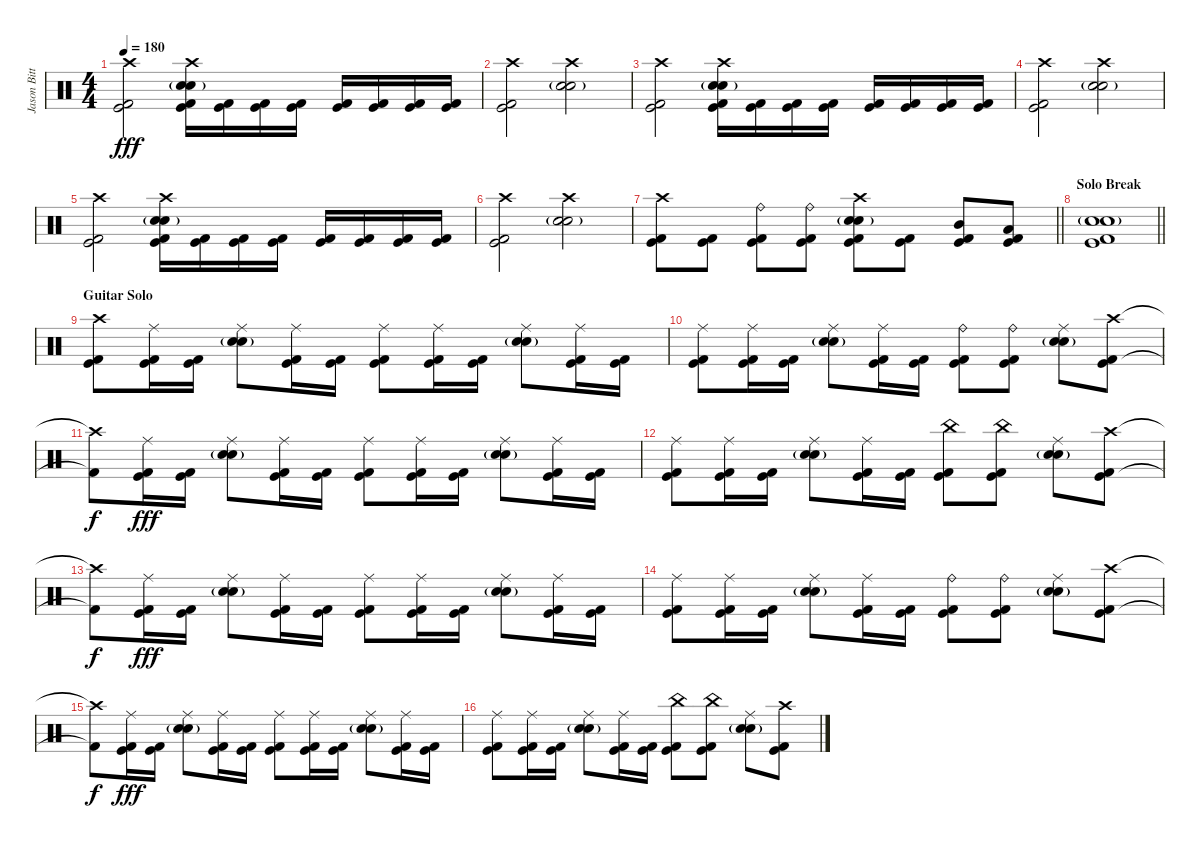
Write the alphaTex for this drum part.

\track ("Jason Bittner" "Jason Bitt") {instrument percussion}
\staff {score}
\articulation defaults
\ts (4 4)
\tempo 180
\clef neutral
\ks c
("Crash high (hit)" "Kick (hit)" "Kick (hit) 2").2{dy fff} ("Crash high (hit)" "Snare (hit) 2"{g} "Electric Snare (hit)" "Kick (hit)" "Kick (hit) 2").16 ("Kick (hit)" "Kick (hit) 2").16 ("Kick (hit)" "Kick (hit) 2").16 ("Kick (hit)" "Kick (hit) 2").16 ("Kick (hit)" "Kick (hit) 2").16 ("Kick (hit)" "Kick (hit) 2").16 ("Kick (hit)" "Kick (hit) 2").16 ("Kick (hit)" "Kick (hit) 2").16 |
("Crash high (hit)" "Kick (hit)" "Kick (hit) 2").2 ("Crash high (hit)" "Snare (hit) 2"{g} "Electric Snare (hit)").2 |
("Crash high (hit)" "Kick (hit)" "Kick (hit) 2").2 ("Crash high (hit)" "Snare (hit) 2"{g} "Electric Snare (hit)" "Kick (hit)" "Kick (hit) 2").16 ("Kick (hit)" "Kick (hit) 2").16 ("Kick (hit)" "Kick (hit) 2").16 ("Kick (hit)" "Kick (hit) 2").16 ("Kick (hit)" "Kick (hit) 2").16 ("Kick (hit)" "Kick (hit) 2").16 ("Kick (hit)" "Kick (hit) 2").16 ("Kick (hit)" "Kick (hit) 2").16 |
("Crash high (hit)" "Kick (hit)" "Kick (hit) 2").2 ("Crash high (hit)" "Snare (hit) 2"{g} "Electric Snare (hit)").2 |
("Crash high (hit)" "Kick (hit)" "Kick (hit) 2").2 ("Crash high (hit)" "Snare (hit) 2"{g} "Electric Snare (hit)" "Kick (hit)" "Kick (hit) 2").16 ("Kick (hit)" "Kick (hit) 2").16 ("Kick (hit)" "Kick (hit) 2").16 ("Kick (hit)" "Kick (hit) 2").16 ("Kick (hit)" "Kick (hit) 2").16 ("Kick (hit)" "Kick (hit) 2").16 ("Kick (hit)" "Kick (hit) 2").16 ("Kick (hit)" "Kick (hit) 2").16 |
("Crash high (hit)" "Kick (hit)" "Kick (hit) 2").2 ("Crash high (hit)" "Snare (hit) 2"{g} "Electric Snare (hit)").2 |
\barLineRight lightlight
("Crash high (hit)" "Kick (hit)" "Kick (hit) 2").8 ("Kick (hit)" "Kick (hit) 2").8 ("Ride (bell)" "Kick (hit)" "Kick (hit) 2").8 ("Ride (bell)" "Kick (hit)" "Kick (hit) 2").8 ("Crash high (hit)" "Snare (hit) 2"{g} "Electric Snare (hit)" "Kick (hit)" "Kick (hit) 2").8 ("Kick (hit)" "Kick (hit) 2").8 ("Mid Tom (hit)" "Kick (hit)" "Kick (hit) 2").8 ("Low Tom (hit)" "Kick (hit)" "Kick (hit) 2").8 |
\section ("" "Solo Break")
\barLineRight lightlight
("Snare (hit) 2"{g} "Electric Snare (hit)" "Kick (hit)" "Kick (hit) 2").1 |
\section ("" "Guitar Solo")
("Crash high (hit)" "Kick (hit)" "Kick (hit) 2").8 ("Ride (middle)" "Kick (hit)" "Kick (hit) 2").16 ("Kick (hit)" "Kick (hit) 2").16 ("Ride (middle)" "Snare (hit) 2"{g} "Electric Snare (hit)").8 ("Ride (middle)" "Kick (hit)" "Kick (hit) 2").16 ("Kick (hit)" "Kick (hit) 2").16 ("Ride (middle)" "Kick (hit)" "Kick (hit) 2").8 ("Ride (middle)" "Kick (hit)" "Kick (hit) 2").16 ("Kick (hit)" "Kick (hit) 2").16 ("Ride (middle)" "Snare (hit) 2"{g} "Electric Snare (hit)").8 ("Ride (middle)" "Kick (hit)" "Kick (hit) 2").16 ("Kick (hit)" "Kick (hit) 2").16 |
("Ride (middle)" "Kick (hit)" "Kick (hit) 2").8 ("Ride (middle)" "Kick (hit)" "Kick (hit) 2").16 ("Kick (hit)" "Kick (hit) 2").16 ("Ride (middle)" "Snare (hit) 2"{g} "Electric Snare (hit)").8 ("Ride (middle)" "Kick (hit)" "Kick (hit) 2").16 ("Kick (hit)" "Kick (hit) 2").16 ("Ride (bell)" "Kick (hit)" "Kick (hit) 2").8 ("Ride (bell)" "Kick (hit)" "Kick (hit) 2").8 ("Ride (middle)" "Snare (hit) 2"{g} "Electric Snare (hit)").8 ("Crash high (hit)" "Kick (hit)" "Kick (hit) 2").8 |
("Crash high (hit)"{t} "Kick (hit) 2"{t}).8{dy f} ("Ride (middle)" "Kick (hit)" "Kick (hit) 2").16{dy fff} ("Kick (hit)" "Kick (hit) 2").16 ("Ride (middle)" "Snare (hit) 2"{g} "Electric Snare (hit)").8 ("Ride (middle)" "Kick (hit)" "Kick (hit) 2").16 ("Kick (hit)" "Kick (hit) 2").16 ("Ride (middle)" "Kick (hit)" "Kick (hit) 2").8 ("Ride (middle)" "Kick (hit)" "Kick (hit) 2").16 ("Kick (hit)" "Kick (hit) 2").16 ("Ride (middle)" "Snare (hit) 2"{g} "Electric Snare (hit)").8 ("Ride (middle)" "Kick (hit)" "Kick (hit) 2").16 ("Kick (hit)" "Kick (hit) 2").16 |
("Ride (middle)" "Kick (hit)" "Kick (hit) 2").8 ("Ride (middle)" "Kick (hit)" "Kick (hit) 2").16 ("Kick (hit)" "Kick (hit) 2").16 ("Ride (middle)" "Snare (hit) 2"{g} "Electric Snare (hit)").8 ("Ride (middle)" "Kick (hit)" "Kick (hit) 2").16 ("Kick (hit)" "Kick (hit) 2").16 ("China (hit)" "Kick (hit)" "Kick (hit) 2").8 ("China (hit)" "Kick (hit)" "Kick (hit) 2").8 ("Ride (middle)" "Snare (hit) 2"{g} "Electric Snare (hit)").8 ("Crash high (hit)" "Kick (hit)" "Kick (hit) 2").8 |
("Crash high (hit)"{t} "Kick (hit) 2"{t}).8{dy f} ("Ride (middle)" "Kick (hit)" "Kick (hit) 2").16{dy fff} ("Kick (hit)" "Kick (hit) 2").16 ("Ride (middle)" "Snare (hit) 2"{g} "Electric Snare (hit)").8 ("Ride (middle)" "Kick (hit)" "Kick (hit) 2").16 ("Kick (hit)" "Kick (hit) 2").16 ("Ride (middle)" "Kick (hit)" "Kick (hit) 2").8 ("Ride (middle)" "Kick (hit)" "Kick (hit) 2").16 ("Kick (hit)" "Kick (hit) 2").16 ("Ride (middle)" "Snare (hit) 2"{g} "Electric Snare (hit)").8 ("Ride (middle)" "Kick (hit)" "Kick (hit) 2").16 ("Kick (hit)" "Kick (hit) 2").16 |
("Ride (middle)" "Kick (hit)" "Kick (hit) 2").8 ("Ride (middle)" "Kick (hit)" "Kick (hit) 2").16 ("Kick (hit)" "Kick (hit) 2").16 ("Ride (middle)" "Snare (hit) 2"{g} "Electric Snare (hit)").8 ("Ride (middle)" "Kick (hit)" "Kick (hit) 2").16 ("Kick (hit)" "Kick (hit) 2").16 ("Ride (bell)" "Kick (hit)" "Kick (hit) 2").8 ("Ride (bell)" "Kick (hit)" "Kick (hit) 2").8 ("Ride (middle)" "Snare (hit) 2"{g} "Electric Snare (hit)").8 ("Crash high (hit)" "Kick (hit)" "Kick (hit) 2").8 |
("Crash high (hit)"{t} "Kick (hit) 2"{t}).8{dy f} ("Ride (middle)" "Kick (hit)" "Kick (hit) 2").16{dy fff} ("Kick (hit)" "Kick (hit) 2").16 ("Ride (middle)" "Snare (hit) 2"{g} "Electric Snare (hit)").8 ("Ride (middle)" "Kick (hit)" "Kick (hit) 2").16 ("Kick (hit)" "Kick (hit) 2").16 ("Ride (middle)" "Kick (hit)" "Kick (hit) 2").8 ("Ride (middle)" "Kick (hit)" "Kick (hit) 2").16 ("Kick (hit)" "Kick (hit) 2").16 ("Ride (middle)" "Snare (hit) 2"{g} "Electric Snare (hit)").8 ("Ride (middle)" "Kick (hit)" "Kick (hit) 2").16 ("Kick (hit)" "Kick (hit) 2").16 |
("Ride (middle)" "Kick (hit)" "Kick (hit) 2").8 ("Ride (middle)" "Kick (hit)" "Kick (hit) 2").16 ("Kick (hit)" "Kick (hit) 2").16 ("Ride (middle)" "Snare (hit) 2"{g} "Electric Snare (hit)").8 ("Ride (middle)" "Kick (hit)" "Kick (hit) 2").16 ("Kick (hit)" "Kick (hit) 2").16 ("China (hit)" "Kick (hit)" "Kick (hit) 2").8 ("China (hit)" "Kick (hit)" "Kick (hit) 2").8 ("Ride (middle)" "Snare (hit) 2"{g} "Electric Snare (hit)").8 ("Crash high (hit)" "Kick (hit)" "Kick (hit) 2").8
